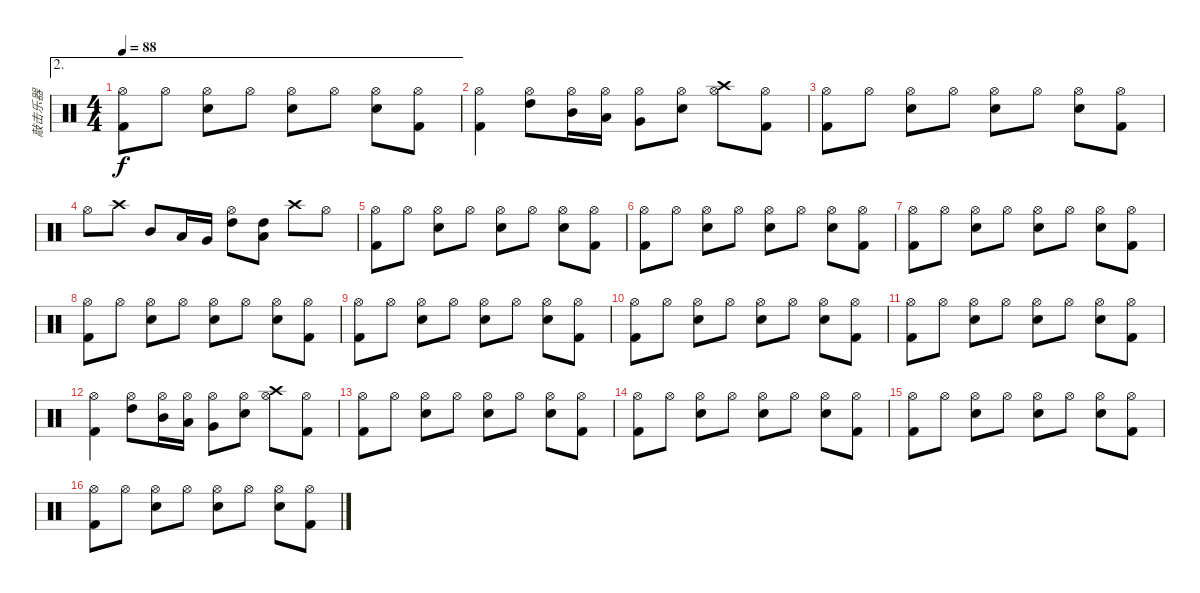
\track ("敲击乐器" "敲击乐器") {instrument percussion}
\staff {score}
\articulation defaults
\ae 2
\ts (4 4)
\tempo 88
\clef neutral
\ks c
("Kick (hit) 2" "Hi-Hat (open)").8{dy f} "Hi-Hat (open)".8 ("Hand Clap (hit)" "Hi-Hat (open)").8 "Hi-Hat (open)".8 ("Electric Snare (hit)" "Hi-Hat (open)").8 "Hi-Hat (open)".8 ("Hand Clap (hit)" "Hi-Hat (open)").8 ("Kick (hit) 2" "Hi-Hat (open)").8 |
("Kick (hit) 2" "Hi-Hat (open)").4 ("High Tom (hit)" "Hi-Hat (open)").8 ("Mid Tom (hit)" "Hi-Hat (open)").16 ("Low Tom (hit)" "Hi-Hat (open)").16 ("Very Low Tom (hit)" "Hi-Hat (open)").8 ("Snare (hit) 2" "Hi-Hat (open)").8 ("Crash high (hit)" "Hi-Hat (open)").8 ("Kick (hit) 2" "Hi-Hat (open)").8 |
("Kick (hit) 2" "Hi-Hat (open)").8 "Hi-Hat (open)".8 ("Hand Clap (hit)" "Hi-Hat (open)").8 "Hi-Hat (open)".8 ("Electric Snare (hit)" "Hi-Hat (open)").8 "Hi-Hat (open)".8 ("Hand Clap (hit)" "Hi-Hat (open)").8 ("Kick (hit) 2" "Hi-Hat (open)").8 |
"Hi-Hat (open)".8 "Crash high (hit)".8 "Mid Tom (hit)".8 "Low Tom (hit)".16 "Very Low Tom (hit)".16 ("High Tom (hit)" "Hi-Hat (open)").8 ("High Tom (hit)" "Low Tom (hit)").8 "Crash high (hit)".8 "Hi-Hat (open)".8 |
("Kick (hit) 2" "Hi-Hat (open)").8 "Hi-Hat (open)".8 ("Hand Clap (hit)" "Hi-Hat (open)").8 "Hi-Hat (open)".8 ("Electric Snare (hit)" "Hi-Hat (open)").8 "Hi-Hat (open)".8 ("Hand Clap (hit)" "Hi-Hat (open)").8 ("Kick (hit) 2" "Hi-Hat (open)").8 |
("Kick (hit) 2" "Hi-Hat (open)").8 "Hi-Hat (open)".8 ("Hand Clap (hit)" "Hi-Hat (open)").8 "Hi-Hat (open)".8 ("Electric Snare (hit)" "Hi-Hat (open)").8 "Hi-Hat (open)".8 ("Hand Clap (hit)" "Hi-Hat (open)").8 ("Kick (hit) 2" "Hi-Hat (open)").8 |
("Kick (hit) 2" "Hi-Hat (open)").8 "Hi-Hat (open)".8 ("Hand Clap (hit)" "Hi-Hat (open)").8 "Hi-Hat (open)".8 ("Electric Snare (hit)" "Hi-Hat (open)").8 "Hi-Hat (open)".8 ("Hand Clap (hit)" "Hi-Hat (open)").8 ("Kick (hit) 2" "Hi-Hat (open)").8 |
("Kick (hit) 2" "Hi-Hat (open)").8 "Hi-Hat (open)".8 ("Hand Clap (hit)" "Hi-Hat (open)").8 "Hi-Hat (open)".8 ("Electric Snare (hit)" "Hi-Hat (open)").8 "Hi-Hat (open)".8 ("Hand Clap (hit)" "Hi-Hat (open)").8 ("Kick (hit) 2" "Hi-Hat (open)").8 |
("Kick (hit) 2" "Hi-Hat (open)").8 "Hi-Hat (open)".8 ("Hand Clap (hit)" "Hi-Hat (open)").8 "Hi-Hat (open)".8 ("Electric Snare (hit)" "Hi-Hat (open)").8 "Hi-Hat (open)".8 ("Hand Clap (hit)" "Hi-Hat (open)").8 ("Kick (hit) 2" "Hi-Hat (open)").8 |
("Kick (hit) 2" "Hi-Hat (open)").8 "Hi-Hat (open)".8 ("Hand Clap (hit)" "Hi-Hat (open)").8 "Hi-Hat (open)".8 ("Electric Snare (hit)" "Hi-Hat (open)").8 "Hi-Hat (open)".8 ("Hand Clap (hit)" "Hi-Hat (open)").8 ("Kick (hit) 2" "Hi-Hat (open)").8 |
("Kick (hit) 2" "Hi-Hat (open)").8 "Hi-Hat (open)".8 ("Hand Clap (hit)" "Hi-Hat (open)").8 "Hi-Hat (open)".8 ("Electric Snare (hit)" "Hi-Hat (open)").8 "Hi-Hat (open)".8 ("Hand Clap (hit)" "Hi-Hat (open)").8 ("Kick (hit) 2" "Hi-Hat (open)").8 |
("Kick (hit) 2" "Hi-Hat (open)").4 ("High Tom (hit)" "Hi-Hat (open)").8 ("Mid Tom (hit)" "Hi-Hat (open)").16 ("Low Tom (hit)" "Hi-Hat (open)").16 ("Very Low Tom (hit)" "Hi-Hat (open)").8 ("Snare (hit) 2" "Hi-Hat (open)").8 ("Crash high (hit)" "Hi-Hat (open)").8 ("Kick (hit) 2" "Hi-Hat (open)").8 |
("Kick (hit) 2" "Hi-Hat (open)").8 "Hi-Hat (open)".8 ("Hand Clap (hit)" "Hi-Hat (open)").8 "Hi-Hat (open)".8 ("Electric Snare (hit)" "Hi-Hat (open)").8 "Hi-Hat (open)".8 ("Hand Clap (hit)" "Hi-Hat (open)").8 ("Kick (hit) 2" "Hi-Hat (open)").8 |
("Kick (hit) 2" "Hi-Hat (open)").8 "Hi-Hat (open)".8 ("Hand Clap (hit)" "Hi-Hat (open)").8 "Hi-Hat (open)".8 ("Electric Snare (hit)" "Hi-Hat (open)").8 "Hi-Hat (open)".8 ("Hand Clap (hit)" "Hi-Hat (open)").8 ("Kick (hit) 2" "Hi-Hat (open)").8 |
("Kick (hit) 2" "Hi-Hat (open)").8 "Hi-Hat (open)".8 ("Hand Clap (hit)" "Hi-Hat (open)").8 "Hi-Hat (open)".8 ("Electric Snare (hit)" "Hi-Hat (open)").8 "Hi-Hat (open)".8 ("Hand Clap (hit)" "Hi-Hat (open)").8 ("Kick (hit) 2" "Hi-Hat (open)").8 |
("Kick (hit) 2" "Hi-Hat (open)").8 "Hi-Hat (open)".8 ("Hand Clap (hit)" "Hi-Hat (open)").8 "Hi-Hat (open)".8 ("Electric Snare (hit)" "Hi-Hat (open)").8 "Hi-Hat (open)".8 ("Hand Clap (hit)" "Hi-Hat (open)").8 ("Kick (hit) 2" "Hi-Hat (open)").8
